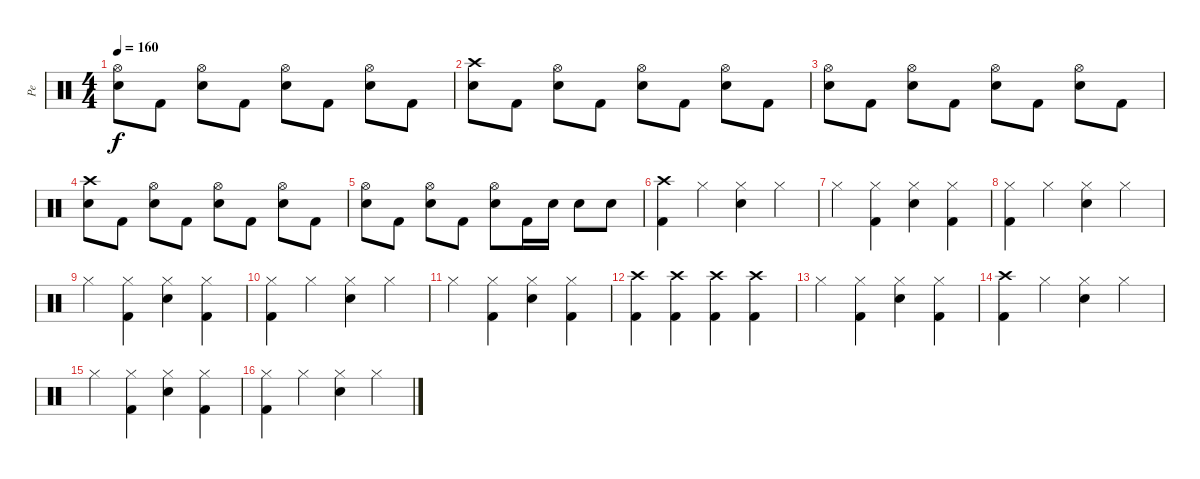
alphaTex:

\track ("Pe" "Pe") {instrument percussion}
\staff {score}
\articulation defaults
\ts (4 4)
\tempo 160
\clef neutral
\ks c
("Hi-Hat (open)" "Snare (hit) 2").8{dy f} "Kick (hit) 2".8 ("Hi-Hat (open)" "Snare (hit) 2").8 "Kick (hit) 2".8 ("Hi-Hat (open)" "Snare (hit) 2").8 "Kick (hit) 2".8 ("Hi-Hat (open)" "Snare (hit) 2").8 "Kick (hit) 2".8 |
("Crash high (hit)" "Snare (hit) 2").8 "Kick (hit) 2".8 ("Hi-Hat (open)" "Snare (hit) 2").8 "Kick (hit) 2".8 ("Hi-Hat (open)" "Snare (hit) 2").8 "Kick (hit) 2".8 ("Hi-Hat (open)" "Snare (hit) 2").8 "Kick (hit) 2".8 |
("Hi-Hat (open)" "Snare (hit) 2").8 "Kick (hit) 2".8 ("Hi-Hat (open)" "Snare (hit) 2").8 "Kick (hit) 2".8 ("Hi-Hat (open)" "Snare (hit) 2").8 "Kick (hit) 2".8 ("Hi-Hat (open)" "Snare (hit) 2").8 "Kick (hit) 2".8 |
("Crash high (hit)" "Snare (hit) 2").8 "Kick (hit) 2".8 ("Hi-Hat (open)" "Snare (hit) 2").8 "Kick (hit) 2".8 ("Hi-Hat (open)" "Snare (hit) 2").8 "Kick (hit) 2".8 ("Hi-Hat (open)" "Snare (hit) 2").8 "Kick (hit) 2".8 |
("Hi-Hat (open)" "Snare (hit) 2").8 "Kick (hit) 2".8 ("Hi-Hat (open)" "Snare (hit) 2").8 "Kick (hit) 2".8 ("Hi-Hat (open)" "Snare (hit) 2").8 "Kick (hit) 2".16 "Snare (hit) 2".16 "Snare (hit) 2".8 "Snare (hit) 2".8 |
("Crash high (hit)" "Kick (hit) 2").4 "Hi-Hat (closed)".4 ("Hi-Hat (closed)" "Snare (hit) 2").4 "Hi-Hat (closed)".4 |
"Hi-Hat (closed)".4 ("Hi-Hat (closed)" "Kick (hit) 2").4 ("Hi-Hat (closed)" "Snare (hit) 2").4 ("Hi-Hat (closed)" "Kick (hit) 2").4 |
("Hi-Hat (closed)" "Kick (hit) 2").4 "Hi-Hat (closed)".4 ("Hi-Hat (closed)" "Snare (hit) 2").4 "Hi-Hat (closed)".4 |
"Hi-Hat (closed)".4 ("Hi-Hat (closed)" "Kick (hit) 2").4 ("Hi-Hat (closed)" "Snare (hit) 2").4 ("Hi-Hat (closed)" "Kick (hit) 2").4 |
("Hi-Hat (closed)" "Kick (hit) 2").4 "Hi-Hat (closed)".4 ("Hi-Hat (closed)" "Snare (hit) 2").4 "Hi-Hat (closed)".4 |
"Hi-Hat (closed)".4 ("Hi-Hat (closed)" "Kick (hit) 2").4 ("Hi-Hat (closed)" "Snare (hit) 2").4 ("Hi-Hat (closed)" "Kick (hit) 2").4 |
("Crash high (hit)" "Kick (hit) 2").4 ("Crash high (hit)" "Kick (hit) 2").4 ("Crash high (hit)" "Kick (hit) 2").4 ("Crash high (hit)" "Kick (hit) 2").4 |
"Hi-Hat (closed)".4 ("Hi-Hat (closed)" "Kick (hit) 2").4 ("Hi-Hat (closed)" "Snare (hit) 2").4 ("Hi-Hat (closed)" "Kick (hit) 2").4 |
("Crash high (hit)" "Kick (hit) 2").4 "Hi-Hat (closed)".4 ("Hi-Hat (closed)" "Snare (hit) 2").4 "Hi-Hat (closed)".4 |
"Hi-Hat (closed)".4 ("Hi-Hat (closed)" "Kick (hit) 2").4 ("Hi-Hat (closed)" "Snare (hit) 2").4 ("Hi-Hat (closed)" "Kick (hit) 2").4 |
("Hi-Hat (closed)" "Kick (hit) 2").4 "Hi-Hat (closed)".4 ("Hi-Hat (closed)" "Snare (hit) 2").4 "Hi-Hat (closed)".4
